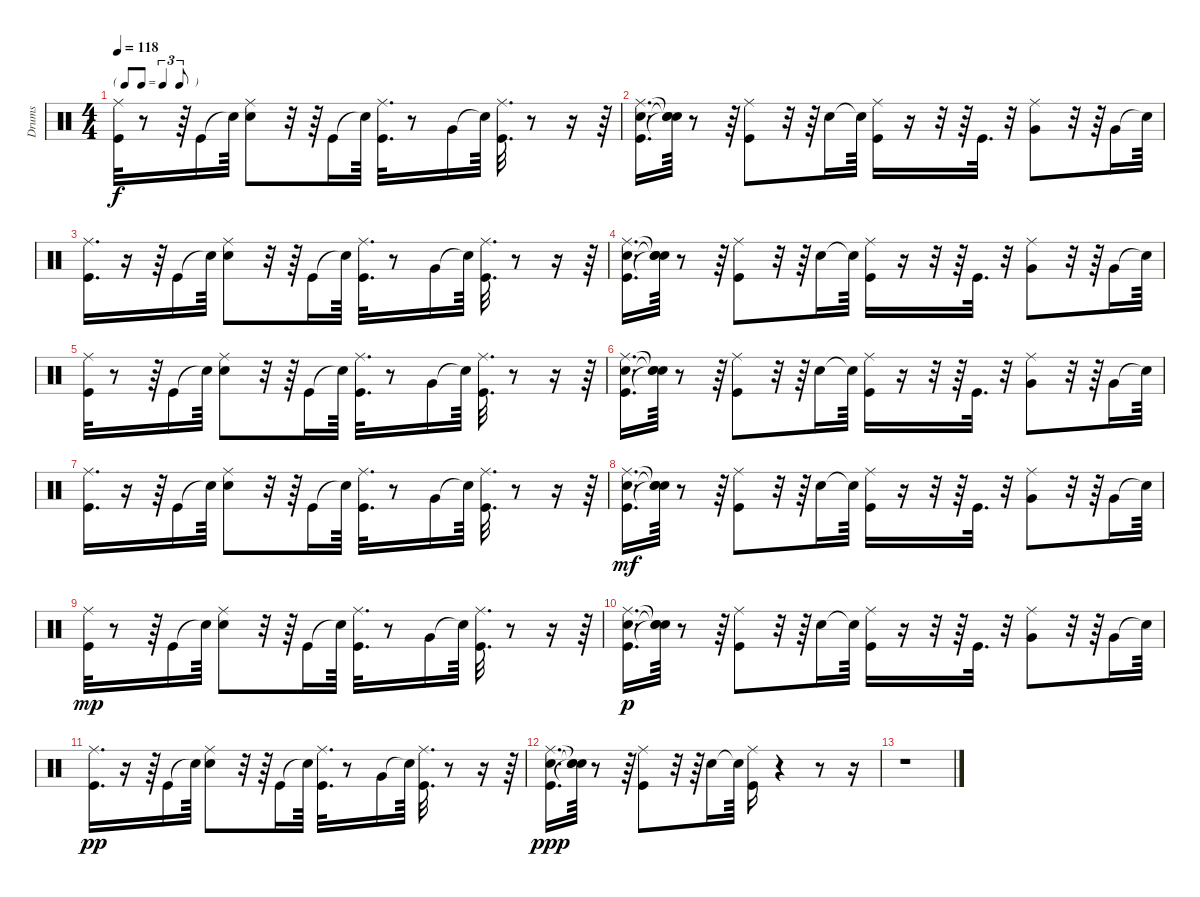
\track ("Drums" "Drums") {instrument percussion}
\staff {score}
\articulation defaults
\ts (4 4)
\tf triplet8th
\tempo 118
\clef neutral
\ks c
("Ride (middle)" "Kick (hit)").32{dy f} r.8 r.64 "Kick (hit)".16 "Snare (hit)"{t}.64 ("Snare (hit) 2" "Ride (middle)").8 r.32 r.64 "Kick (hit)".16 "Snare (hit)"{t}.64 ("Ride (middle)" "Kick (hit)").32{d} r.8 "Very Low Tom (hit)".16 "Snare (hit)"{t}.64 ("Ride (middle)" "Kick (hit)").32{d} r.8 r.16 r.64 |
("Kick (hit)" "Ride (middle)" "Snare (hit) 2").16{d} ("Snare (hit)"{t} "Snare (hit)"{t} "Snare (hit)"{t}).64 r.8 r.64 ("Kick (hit)" "Ride (middle)").8 r.32 r.64 "Snare (hit) 2".16 "Snare (hit)"{t}.64 ("Kick (hit)" "Ride (middle)").16 r.16 r.32 r.64 "Kick (hit)".32{d} r.32 ("Ride (middle)" "Very Low Tom (hit)").8 r.32 r.64 "Very Low Tom (hit)".16 "Snare (hit)"{t}.64 |
("Kick (hit)" "Ride (middle)").16{d} r.16 r.64 "Kick (hit)".16 "Snare (hit)"{t}.64 ("Snare (hit) 2" "Ride (middle)").8 r.32 r.64 "Kick (hit)".16 "Snare (hit)"{t}.64 ("Ride (middle)" "Kick (hit)").32{d} r.8 "Very Low Tom (hit)".16 "Snare (hit)"{t}.64 ("Kick (hit)" "Ride (middle)").32{d} r.8 r.16 r.64 |
("Ride (middle)" "Kick (hit)" "Snare (hit) 2").16{d} ("Snare (hit)"{t} "Snare (hit)"{t} "Snare (hit)"{t}).64 r.8 r.64 ("Ride (middle)" "Kick (hit)").8 r.32 r.64 "Snare (hit) 2".16 "Snare (hit)"{t}.64 ("Kick (hit)" "Ride (middle)").16 r.16 r.32 r.64 "Kick (hit)".32{d} r.32 ("Ride (middle)" "Very Low Tom (hit)").8 r.32 r.64 "Very Low Tom (hit)".16 "Snare (hit)"{t}.64 |
("Ride (middle)" "Kick (hit)").32 r.8 r.64 "Kick (hit)".16 "Snare (hit)"{t}.64 ("Snare (hit) 2" "Ride (middle)").8 r.32 r.64 "Kick (hit)".16 "Snare (hit)"{t}.64 ("Ride (middle)" "Kick (hit)").32{d} r.8 "Very Low Tom (hit)".16 "Snare (hit)"{t}.64 ("Ride (middle)" "Kick (hit)").32{d} r.8 r.16 r.64 |
("Kick (hit)" "Ride (middle)" "Snare (hit) 2").16{d} ("Snare (hit)"{t} "Snare (hit)"{t} "Snare (hit)"{t}).64 r.8 r.64 ("Kick (hit)" "Ride (middle)").8 r.32 r.64 "Snare (hit) 2".16 "Snare (hit)"{t}.64 ("Kick (hit)" "Ride (middle)").16 r.16 r.32 r.64 "Kick (hit)".32{d} r.32 ("Ride (middle)" "Very Low Tom (hit)").8 r.32 r.64 "Very Low Tom (hit)".16 "Snare (hit)"{t}.64 |
("Kick (hit)" "Ride (middle)").16{d} r.16 r.64 "Kick (hit)".16 "Snare (hit)"{t}.64 ("Snare (hit) 2" "Ride (middle)").8 r.32 r.64 "Kick (hit)".16 "Snare (hit)"{t}.64 ("Ride (middle)" "Kick (hit)").32{d} r.8 "Very Low Tom (hit)".16 "Snare (hit)"{t}.64 ("Kick (hit)" "Ride (middle)").32{d} r.8 r.16 r.64 |
("Ride (middle)" "Kick (hit)" "Snare (hit) 2").16{d dy mf} ("Snare (hit)"{t} "Snare (hit)"{t} "Snare (hit)"{t}).64 r.8 r.64 ("Ride (middle)" "Kick (hit)").8 r.32 r.64 "Snare (hit) 2".16 "Snare (hit)"{t}.64 ("Kick (hit)" "Ride (middle)").16 r.16 r.32 r.64 "Kick (hit)".32{d} r.32 ("Ride (middle)" "Very Low Tom (hit)").8 r.32 r.64 "Very Low Tom (hit)".16 "Snare (hit)"{t}.64 |
("Ride (middle)" "Kick (hit)").32{dy mp} r.8 r.64 "Kick (hit)".16 "Snare (hit)"{t}.64 ("Snare (hit) 2" "Ride (middle)").8 r.32 r.64 "Kick (hit)".16 "Snare (hit)"{t}.64 ("Ride (middle)" "Kick (hit)").32{d} r.8 "Very Low Tom (hit)".16 "Snare (hit)"{t}.64 ("Ride (middle)" "Kick (hit)").32{d} r.8 r.16 r.64 |
("Kick (hit)" "Ride (middle)" "Snare (hit) 2").16{d dy p} ("Snare (hit)"{t} "Snare (hit)"{t} "Snare (hit)"{t}).64 r.8 r.64 ("Kick (hit)" "Ride (middle)").8 r.32 r.64 "Snare (hit) 2".16 "Snare (hit)"{t}.64 ("Kick (hit)" "Ride (middle)").16 r.16 r.32 r.64 "Kick (hit)".32{d} r.32 ("Ride (middle)" "Very Low Tom (hit)").8 r.32 r.64 "Very Low Tom (hit)".16 "Snare (hit)"{t}.64 |
("Kick (hit)" "Ride (middle)").16{d dy pp} r.16 r.64 "Kick (hit)".16 "Snare (hit)"{t}.64 ("Snare (hit) 2" "Ride (middle)").8 r.32 r.64 "Kick (hit)".16 "Snare (hit)"{t}.64 ("Ride (middle)" "Kick (hit)").32{d} r.8 "Very Low Tom (hit)".16 "Snare (hit)"{t}.64 ("Kick (hit)" "Ride (middle)").32{d} r.8 r.16 r.64 |
("Ride (middle)" "Kick (hit)" "Snare (hit) 2").16{d dy ppp} ("Snare (hit)"{t} "Snare (hit)"{t} "Snare (hit)"{t}).64 r.8 r.64 ("Ride (middle)" "Kick (hit)").8 r.32 r.64 "Snare (hit) 2".16 "Snare (hit)"{t}.64 ("Kick (hit)" "Ride (middle)").16 r.4 r.8 r.16 |
r.1
